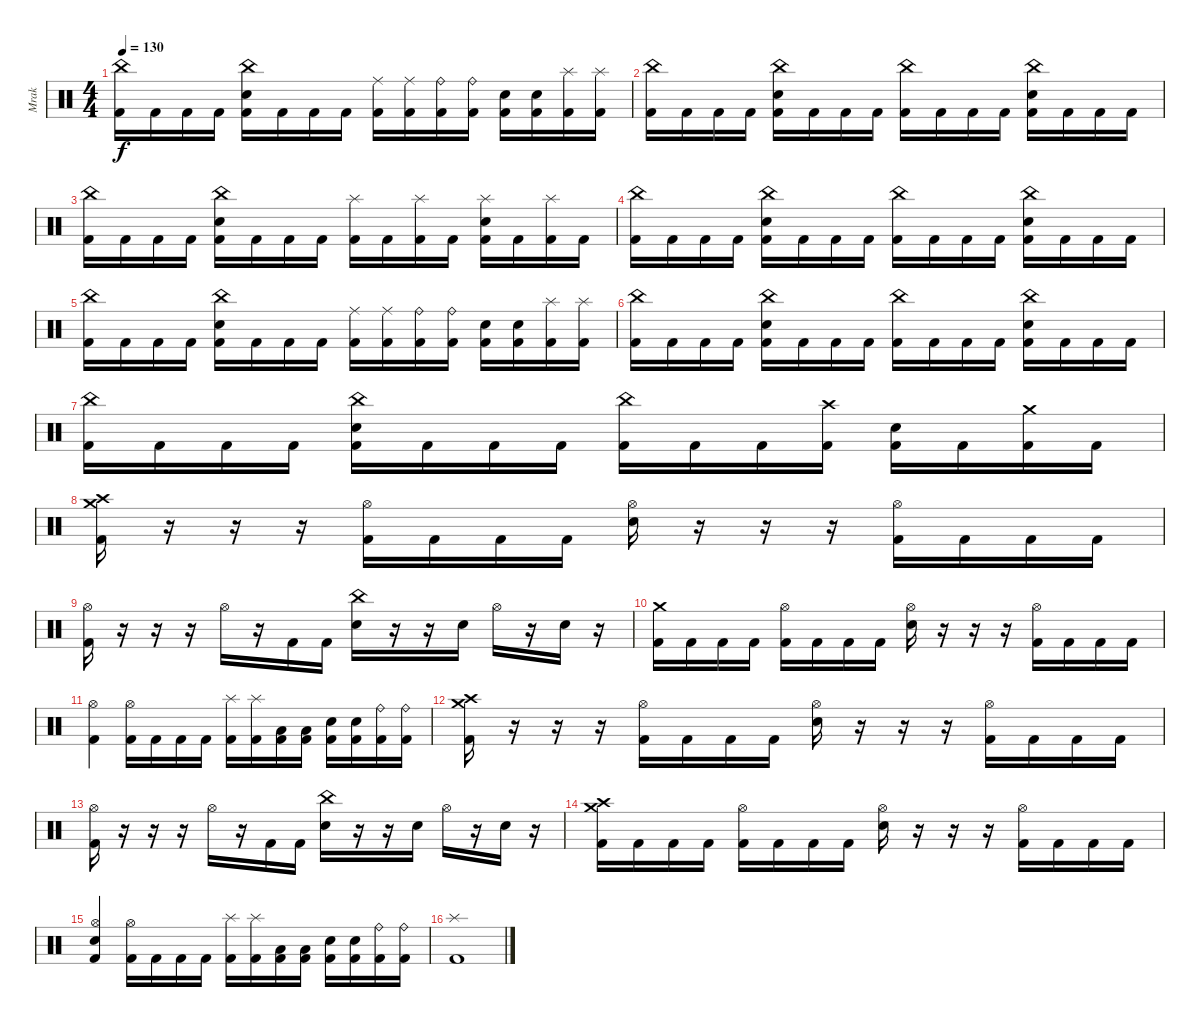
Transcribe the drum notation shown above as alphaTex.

\track ("Mrak" "Mrak") {instrument percussion}
\staff {score}
\articulation defaults
\ts (4 4)
\tempo 130
\clef neutral
\ks c
("China (hit)" "Kick (hit) 2").16{dy f} "Kick (hit) 2".16 "Kick (hit) 2".16 "Kick (hit) 2".16 ("China (hit)" "Electric Snare (hit)" "Kick (hit) 2").16 "Kick (hit) 2".16 "Kick (hit) 2".16 "Kick (hit) 2".16 ("Ride (middle)" "Kick (hit) 2").16 ("Ride (middle)" "Kick (hit) 2").16 ("Ride (bell)" "Kick (hit) 2").16 ("Ride (bell)" "Kick (hit) 2").16 ("Electric Snare (hit)" "Kick (hit) 2").16 ("Electric Snare (hit)" "Kick (hit) 2").16 ("Splash (hit)" "Kick (hit) 2").16 ("Splash (hit)" "Kick (hit) 2").16 |
("China (hit)" "Kick (hit) 2").16 "Kick (hit) 2".16 "Kick (hit) 2".16 "Kick (hit) 2".16 ("China (hit)" "Electric Snare (hit)" "Kick (hit) 2").16 "Kick (hit) 2".16 "Kick (hit) 2".16 "Kick (hit) 2".16 ("China (hit)" "Kick (hit) 2").16 "Kick (hit) 2".16 "Kick (hit) 2".16 "Kick (hit) 2".16 ("China (hit)" "Electric Snare (hit)" "Kick (hit) 2").16 "Kick (hit) 2".16 "Kick (hit) 2".16 "Kick (hit) 2".16 |
("China (hit)" "Kick (hit) 2").16 "Kick (hit) 2".16 "Kick (hit) 2".16 "Kick (hit) 2".16 ("China (hit)" "Electric Snare (hit)" "Kick (hit) 2").16 "Kick (hit) 2".16 "Kick (hit) 2".16 "Kick (hit) 2".16 ("Splash (hit)" "Kick (hit) 2").16 "Kick (hit) 2".16 ("Splash (hit)" "Kick (hit) 2").16 "Kick (hit) 2".16 ("Splash (hit)" "Electric Snare (hit)" "Kick (hit) 2").16 "Kick (hit) 2".16 ("Splash (hit)" "Kick (hit) 2").16 "Kick (hit) 2".16 |
("China (hit)" "Kick (hit) 2").16 "Kick (hit) 2".16 "Kick (hit) 2".16 "Kick (hit) 2".16 ("China (hit)" "Electric Snare (hit)" "Kick (hit) 2").16 "Kick (hit) 2".16 "Kick (hit) 2".16 "Kick (hit) 2".16 ("China (hit)" "Kick (hit) 2").16 "Kick (hit) 2".16 "Kick (hit) 2".16 "Kick (hit) 2".16 ("China (hit)" "Electric Snare (hit)" "Kick (hit) 2").16 "Kick (hit) 2".16 "Kick (hit) 2".16 "Kick (hit) 2".16 |
("China (hit)" "Kick (hit) 2").16 "Kick (hit) 2".16 "Kick (hit) 2".16 "Kick (hit) 2".16 ("China (hit)" "Electric Snare (hit)" "Kick (hit) 2").16 "Kick (hit) 2".16 "Kick (hit) 2".16 "Kick (hit) 2".16 ("Ride (middle)" "Kick (hit) 2").16 ("Ride (middle)" "Kick (hit) 2").16 ("Ride (bell)" "Kick (hit) 2").16 ("Ride (bell)" "Kick (hit) 2").16 ("Electric Snare (hit)" "Kick (hit) 2").16 ("Electric Snare (hit)" "Kick (hit) 2").16 ("Splash (hit)" "Kick (hit) 2").16 ("Splash (hit)" "Kick (hit) 2").16 |
("China (hit)" "Kick (hit) 2").16 "Kick (hit) 2".16 "Kick (hit) 2".16 "Kick (hit) 2".16 ("China (hit)" "Electric Snare (hit)" "Kick (hit) 2").16 "Kick (hit) 2".16 "Kick (hit) 2".16 "Kick (hit) 2".16 ("China (hit)" "Kick (hit) 2").16 "Kick (hit) 2".16 "Kick (hit) 2".16 "Kick (hit) 2".16 ("China (hit)" "Electric Snare (hit)" "Kick (hit) 2").16 "Kick (hit) 2".16 "Kick (hit) 2".16 "Kick (hit) 2".16 |
("China (hit)" "Kick (hit) 2").16 "Kick (hit) 2".16 "Kick (hit) 2".16 "Kick (hit) 2".16 ("China (hit)" "Electric Snare (hit)" "Kick (hit) 2").16 "Kick (hit) 2".16 "Kick (hit) 2".16 "Kick (hit) 2".16 ("China (hit)" "Kick (hit) 2").16 "Kick (hit) 2".16 "Kick (hit) 2".16 ("Crash high (hit)" "Kick (hit) 2").16 ("Electric Snare (hit)" "Kick (hit) 2").16 "Kick (hit) 2".16 ("Crash medium (hit)" "Kick (hit) 2").16 "Kick (hit) 2".16 |
("Crash high (hit)" "Crash medium (hit)" "Kick (hit) 2").16 r.16 r.16 r.16 ("Hi-Hat (open)" "Kick (hit) 2").16 "Kick (hit) 2".16 "Kick (hit) 2".16 "Kick (hit) 2".16 ("Hi-Hat (open)" "Electric Snare (hit)").16 r.16 r.16 r.16 ("Hi-Hat (open)" "Kick (hit) 2").16 "Kick (hit) 2".16 "Kick (hit) 2".16 "Kick (hit) 2".16 |
("Hi-Hat (open)" "Kick (hit) 2").16 r.16 r.16 r.16 "Hi-Hat (open)".16 r.16 "Kick (hit) 2".16 "Kick (hit) 2".16 ("China (hit)" "Electric Snare (hit)").16 r.16 r.16 "Electric Snare (hit)".16 "Hi-Hat (open)".16 r.16 "Electric Snare (hit)".16 r.16 |
("Crash medium (hit)" "Kick (hit) 2").16 "Kick (hit) 2".16 "Kick (hit) 2".16 "Kick (hit) 2".16 ("Hi-Hat (open)" "Kick (hit) 2").16 "Kick (hit) 2".16 "Kick (hit) 2".16 "Kick (hit) 2".16 ("Hi-Hat (open)" "Electric Snare (hit)").16 r.16 r.16 r.16 ("Hi-Hat (open)" "Kick (hit) 2").16 "Kick (hit) 2".16 "Kick (hit) 2".16 "Kick (hit) 2".16 |
("Hi-Hat (open)" "Kick (hit) 2").4 ("Hi-Hat (open)" "Kick (hit) 2").16 "Kick (hit) 2".16 "Kick (hit) 2".16 "Kick (hit) 2".16 ("Splash (hit)" "Kick (hit) 2").16 ("Splash (hit)" "Kick (hit) 2").16 ("Low Tom (hit)" "Kick (hit) 2").16 ("Low Tom (hit)" "Kick (hit) 2").16 ("Electric Snare (hit)" "Kick (hit) 2").16 ("Electric Snare (hit)" "Kick (hit) 2").16 ("Ride (bell)" "Kick (hit) 2").16 ("Ride (bell)" "Kick (hit) 2").16 |
("Crash high (hit)" "Crash medium (hit)" "Kick (hit) 2").16 r.16 r.16 r.16 ("Hi-Hat (open)" "Kick (hit) 2").16 "Kick (hit) 2".16 "Kick (hit) 2".16 "Kick (hit) 2".16 ("Hi-Hat (open)" "Electric Snare (hit)").16 r.16 r.16 r.16 ("Hi-Hat (open)" "Kick (hit) 2").16 "Kick (hit) 2".16 "Kick (hit) 2".16 "Kick (hit) 2".16 |
("Hi-Hat (open)" "Kick (hit) 2").16 r.16 r.16 r.16 "Hi-Hat (open)".16 r.16 "Kick (hit) 2".16 "Kick (hit) 2".16 ("China (hit)" "Electric Snare (hit)").16 r.16 r.16 "Electric Snare (hit)".16 "Hi-Hat (open)".16 r.16 "Electric Snare (hit)".16 r.16 |
("Crash high (hit)" "Crash medium (hit)" "Kick (hit) 2").16 "Kick (hit) 2".16 "Kick (hit) 2".16 "Kick (hit) 2".16 ("Hi-Hat (open)" "Kick (hit) 2").16 "Kick (hit) 2".16 "Kick (hit) 2".16 "Kick (hit) 2".16 ("Hi-Hat (open)" "Electric Snare (hit)").16 r.16 r.16 r.16 ("Hi-Hat (open)" "Kick (hit) 2").16 "Kick (hit) 2".16 "Kick (hit) 2".16 "Kick (hit) 2".16 |
("Snare (hit)" "Hi-Hat (open)" "Kick (hit) 2").4 ("Hi-Hat (open)" "Kick (hit) 2").16 "Kick (hit) 2".16 "Kick (hit) 2".16 "Kick (hit) 2".16 ("Splash (hit)" "Kick (hit) 2").16 ("Splash (hit)" "Kick (hit) 2").16 ("Low Tom (hit)" "Kick (hit) 2").16 ("Low Tom (hit)" "Kick (hit) 2").16 ("Electric Snare (hit)" "Kick (hit) 2").16 ("Electric Snare (hit)" "Kick (hit) 2").16 ("Ride (bell)" "Kick (hit) 2").16 ("Ride (bell)" "Kick (hit) 2").16 |
("Splash (hit)" "Kick (hit) 2").1
